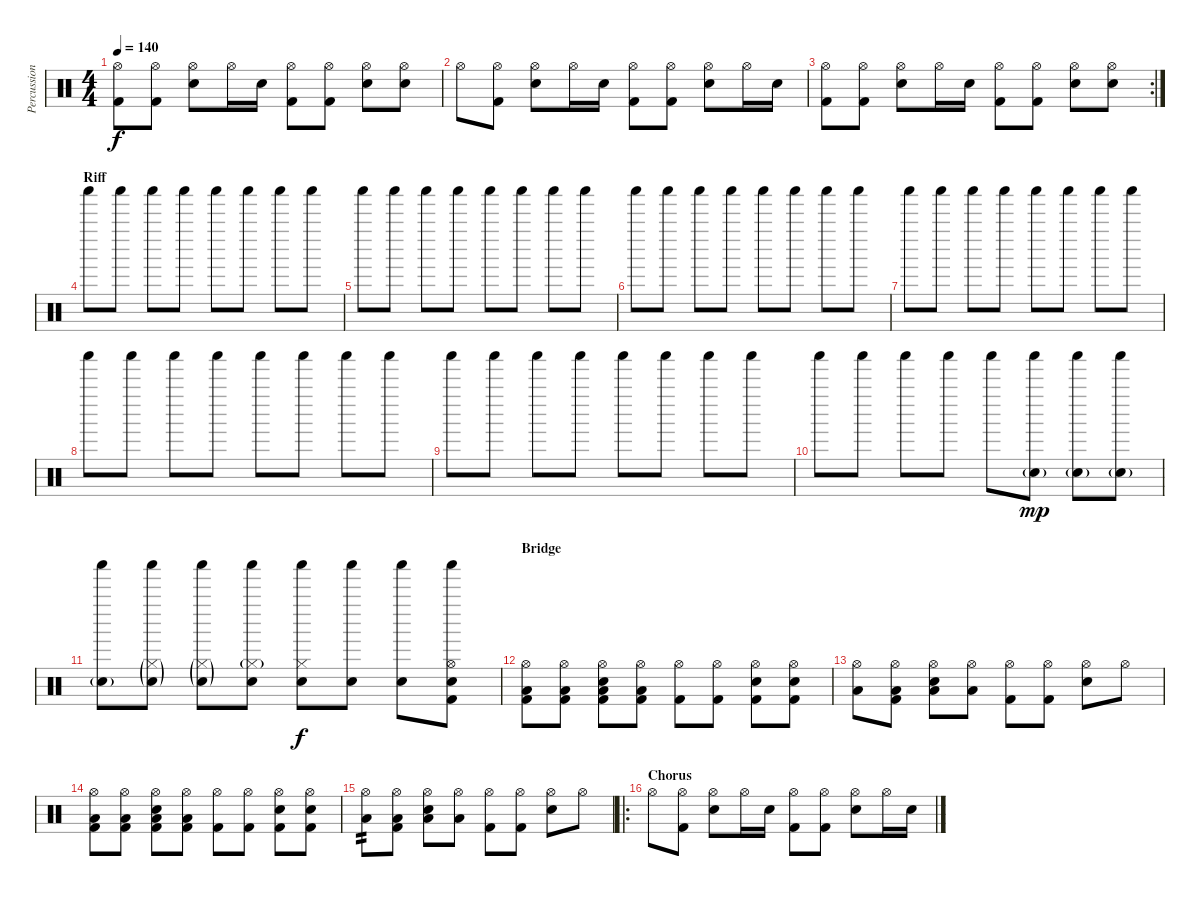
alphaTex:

\track ("Percussion" "Percussion") {instrument percussion}
\staff {score}
\articulation defaults
\ts (4 4)
\tempo 140
\clef neutral
\ks c
("Hi-Hat (open)" "Kick (hit) 2").8{dy f} ("Hi-Hat (open)" "Kick (hit) 2").8 ("Hi-Hat (open)" "Snare (hit) 2").8 "Hi-Hat (open)".16 "Snare (hit) 2".16 ("Hi-Hat (open)" "Kick (hit) 2").8 ("Hi-Hat (open)" "Kick (hit) 2").8 ("Hi-Hat (open)" "Snare (hit) 2").8 ("Hi-Hat (open)" "Snare (hit) 2").8 |
"Hi-Hat (open)".8 ("Hi-Hat (open)" "Kick (hit) 2").8 ("Hi-Hat (open)" "Snare (hit) 2").8 "Hi-Hat (open)".16 "Snare (hit) 2".16 ("Hi-Hat (open)" "Kick (hit) 2").8 ("Hi-Hat (open)" "Kick (hit) 2").8 ("Hi-Hat (open)" "Snare (hit) 2").8 "Hi-Hat (open)".16 "Snare (hit) 2".16 |
\rc 2
("Hi-Hat (open)" "Kick (hit) 2").8 ("Hi-Hat (open)" "Kick (hit) 2").8 ("Hi-Hat (open)" "Snare (hit) 2").8 "Hi-Hat (open)".16 "Snare (hit) 2".16 ("Hi-Hat (open)" "Kick (hit) 2").8 ("Hi-Hat (open)" "Kick (hit) 2").8 ("Hi-Hat (open)" "Snare (hit) 2").8 ("Hi-Hat (open)" "Snare (hit) 2").8 |
\section ("" "Riff")
"Shaker (hit)".8 "Shaker (hit)".8 "Shaker (hit)".8 "Shaker (hit)".8 "Shaker (hit)".8 "Shaker (hit)".8 "Shaker (hit)".8 "Shaker (hit)".8 |
"Shaker (hit)".8 "Shaker (hit)".8 "Shaker (hit)".8 "Shaker (hit)".8 "Shaker (hit)".8 "Shaker (hit)".8 "Shaker (hit)".8 "Shaker (hit)".8 |
"Shaker (hit)".8 "Shaker (hit)".8 "Shaker (hit)".8 "Shaker (hit)".8 "Shaker (hit)".8 "Shaker (hit)".8 "Shaker (hit)".8 "Shaker (hit)".8 |
"Shaker (hit)".8 "Shaker (hit)".8 "Shaker (hit)".8 "Shaker (hit)".8 "Shaker (hit)".8 "Shaker (hit)".8 "Shaker (hit)".8 "Shaker (hit)".8 |
"Shaker (hit)".8 "Shaker (hit)".8 "Shaker (hit)".8 "Shaker (hit)".8 "Shaker (hit)".8 "Shaker (hit)".8 "Shaker (hit)".8 "Shaker (hit)".8 |
"Shaker (hit)".8 "Shaker (hit)".8 "Shaker (hit)".8 "Shaker (hit)".8 "Shaker (hit)".8 "Shaker (hit)".8 "Shaker (hit)".8 "Shaker (hit)".8 |
"Shaker (hit)".8 "Shaker (hit)".8 "Shaker (hit)".8 "Shaker (hit)".8 "Shaker (hit)".8 ("Snare (hit) 2"{g} "Shaker (hit)").8{dy mp} ("Snare (hit) 2"{g} "Shaker (hit)").8 ("Snare (hit) 2"{g} "Shaker (hit)").8 |
("Snare (hit) 2"{g} "Shaker (hit)").8 ("Hi-Hat (closed)"{g} "Snare (hit) 2"{g} "Shaker (hit)").8 ("Hi-Hat (closed)"{g} "Snare (hit) 2"{g} "Shaker (hit)").8 ("Hi-Hat (closed)"{g} "Snare (hit) 2" "Shaker (hit)").8 ("Hi-Hat (closed)" "Shaker (hit)" "Snare (hit) 2").8{dy f} ("Shaker (hit)" "Snare (hit) 2").8 ("Shaker (hit)" "Snare (hit) 2").8 ("Hi-Hat (open)" "Shaker (hit)" "Snare (hit) 2" "Kick (hit) 2").8 |
\section ("" "Bridge")
("Low Floor Tom (hit)" "Hi-Hat (open)" "Kick (hit) 2").8 ("Low Floor Tom (hit)" "Hi-Hat (open)" "Kick (hit) 2").8 ("Low Floor Tom (hit)" "Hi-Hat (open)" "Snare (hit) 2" "Kick (hit) 2").8 ("Low Floor Tom (hit)" "Hi-Hat (open)" "Kick (hit) 2").8 ("Hi-Hat (open)" "Kick (hit) 2").8 ("Hi-Hat (open)" "Kick (hit) 2").8 ("Hi-Hat (open)" "Snare (hit) 2" "Kick (hit) 2").8 ("Hi-Hat (open)" "Snare (hit) 2" "Kick (hit) 2").8 |
("Low Tom (hit)" "Hi-Hat (open)").8 ("Low Tom (hit)" "Hi-Hat (open)" "Kick (hit) 2").8 ("Low Tom (hit)" "Hi-Hat (open)" "Snare (hit) 2").8 ("Low Tom (hit)" "Hi-Hat (open)").8 ("Hi-Hat (open)" "Kick (hit) 2").8 ("Hi-Hat (open)" "Kick (hit) 2").8 ("Hi-Hat (open)" "Snare (hit) 2").8 "Hi-Hat (open)".8 |
("Low Floor Tom (hit)" "Hi-Hat (open)" "Kick (hit) 2").8 ("Low Floor Tom (hit)" "Hi-Hat (open)" "Kick (hit) 2").8 ("Low Floor Tom (hit)" "Hi-Hat (open)" "Snare (hit) 2" "Kick (hit) 2").8 ("Low Floor Tom (hit)" "Hi-Hat (open)" "Kick (hit) 2").8 ("Hi-Hat (open)" "Kick (hit) 2").8 ("Hi-Hat (open)" "Kick (hit) 2").8 ("Hi-Hat (open)" "Snare (hit) 2" "Kick (hit) 2").8 ("Hi-Hat (open)" "Snare (hit) 2" "Kick (hit) 2").8 |
("Low Tom (hit)" "Hi-Hat (open)").8{tp 2} ("Low Tom (hit)" "Hi-Hat (open)" "Kick (hit) 2").8 ("Low Tom (hit)" "Hi-Hat (open)" "Snare (hit) 2").8 ("Low Tom (hit)" "Hi-Hat (open)").8 ("Hi-Hat (open)" "Kick (hit) 2").8 ("Hi-Hat (open)" "Kick (hit) 2").8 ("Hi-Hat (open)" "Snare (hit) 2").8 "Hi-Hat (open)".8 |
\ro
\section ("" "Chorus")
"Hi-Hat (open)".8 ("Hi-Hat (open)" "Kick (hit) 2").8 ("Hi-Hat (open)" "Snare (hit) 2").8 "Hi-Hat (open)".16 "Snare (hit) 2".16 ("Hi-Hat (open)" "Kick (hit) 2").8 ("Hi-Hat (open)" "Kick (hit) 2").8 ("Hi-Hat (open)" "Snare (hit) 2").8 "Hi-Hat (open)".16 "Snare (hit) 2".16
